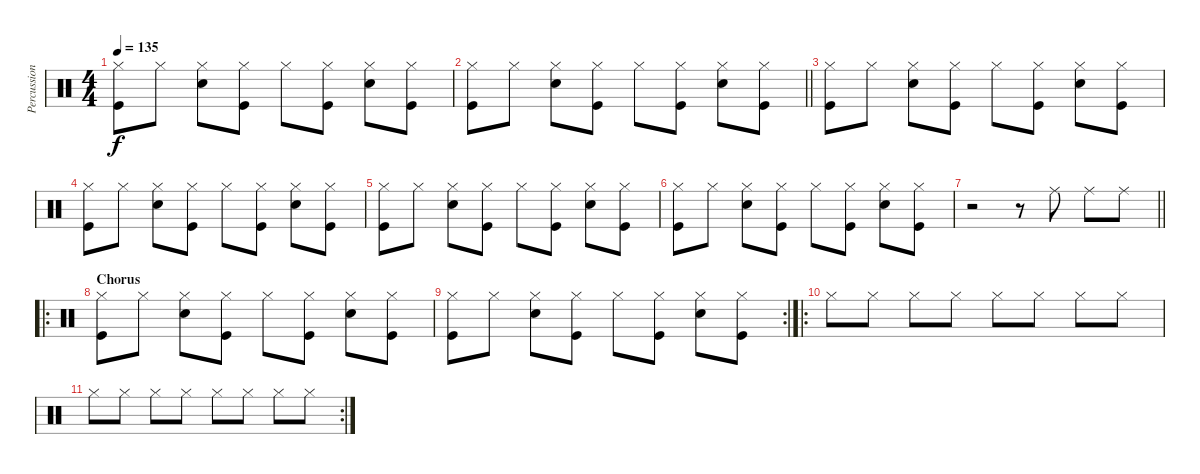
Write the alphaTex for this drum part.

\track ("Percussions" "Percussion") {instrument percussion}
\staff {score}
\articulation defaults
\ts (4 4)
\tempo 135
\clef neutral
\ks c
("Hi-Hat (closed)" "Kick (hit)").8{dy f} "Hi-Hat (closed)".8 ("Hi-Hat (closed)" "Snare (hit) 2").8 ("Hi-Hat (closed)" "Kick (hit)").8 "Hi-Hat (closed)".8 ("Hi-Hat (closed)" "Kick (hit)").8 ("Hi-Hat (closed)" "Snare (hit) 2").8 ("Hi-Hat (closed)" "Kick (hit)").8 |
\barLineRight lightlight
("Hi-Hat (closed)" "Kick (hit)").8 "Hi-Hat (closed)".8 ("Hi-Hat (closed)" "Snare (hit) 2").8 ("Hi-Hat (closed)" "Kick (hit)").8 "Hi-Hat (closed)".8 ("Hi-Hat (closed)" "Kick (hit)").8 ("Hi-Hat (closed)" "Snare (hit) 2").8 ("Hi-Hat (closed)" "Kick (hit)").8 |
("Hi-Hat (closed)" "Kick (hit)").8 "Hi-Hat (closed)".8 ("Hi-Hat (closed)" "Snare (hit) 2").8 ("Hi-Hat (closed)" "Kick (hit)").8 "Hi-Hat (closed)".8 ("Hi-Hat (closed)" "Kick (hit)").8 ("Hi-Hat (closed)" "Snare (hit) 2").8 ("Hi-Hat (closed)" "Kick (hit)").8 |
("Hi-Hat (closed)" "Kick (hit)").8 "Hi-Hat (closed)".8 ("Hi-Hat (closed)" "Snare (hit) 2").8 ("Hi-Hat (closed)" "Kick (hit)").8 "Hi-Hat (closed)".8 ("Hi-Hat (closed)" "Kick (hit)").8 ("Hi-Hat (closed)" "Snare (hit) 2").8 ("Hi-Hat (closed)" "Kick (hit)").8 |
("Hi-Hat (closed)" "Kick (hit)").8 "Hi-Hat (closed)".8 ("Hi-Hat (closed)" "Snare (hit) 2").8 ("Hi-Hat (closed)" "Kick (hit)").8 "Hi-Hat (closed)".8 ("Hi-Hat (closed)" "Kick (hit)").8 ("Hi-Hat (closed)" "Snare (hit) 2").8 ("Hi-Hat (closed)" "Kick (hit)").8 |
("Hi-Hat (closed)" "Kick (hit)").8 "Hi-Hat (closed)".8 ("Hi-Hat (closed)" "Snare (hit) 2").8 ("Hi-Hat (closed)" "Kick (hit)").8 "Hi-Hat (closed)".8 ("Hi-Hat (closed)" "Kick (hit)").8 ("Hi-Hat (closed)" "Snare (hit) 2").8 ("Hi-Hat (closed)" "Kick (hit)").8 |
\barLineRight lightlight
r.2 r.8 "Ride (middle)".8 "Ride (middle)".8 "Ride (middle)".8 |
\ro
\section ("" "Chorus")
("Hi-Hat (closed)" "Kick (hit)").8 "Hi-Hat (closed)".8 ("Hi-Hat (closed)" "Snare (hit) 2").8 ("Hi-Hat (closed)" "Kick (hit)").8 "Hi-Hat (closed)".8 ("Hi-Hat (closed)" "Kick (hit)").8 ("Hi-Hat (closed)" "Snare (hit) 2").8 ("Hi-Hat (closed)" "Kick (hit)").8 |
\rc 2
("Hi-Hat (closed)" "Kick (hit)").8 "Hi-Hat (closed)".8 ("Hi-Hat (closed)" "Snare (hit) 2").8 ("Hi-Hat (closed)" "Kick (hit)").8 "Hi-Hat (closed)".8 ("Hi-Hat (closed)" "Kick (hit)").8 ("Hi-Hat (closed)" "Snare (hit) 2").8 ("Hi-Hat (closed)" "Kick (hit)").8 |
\ro "Hi-Hat (closed)".8 "Hi-Hat (closed)".8 "Hi-Hat (closed)".8 "Hi-Hat (closed)".8 "Hi-Hat (closed)".8 "Hi-Hat (closed)".8 "Hi-Hat (closed)".8 "Hi-Hat (closed)".8
|
\rc 2 "Hi-Hat (closed)".8 "Hi-Hat (closed)".8 "Hi-Hat (closed)".8 "Hi-Hat (closed)".8 "Hi-Hat (closed)".8 "Hi-Hat (closed)".8 "Hi-Hat (closed)".8 "Hi-Hat (closed)".8
